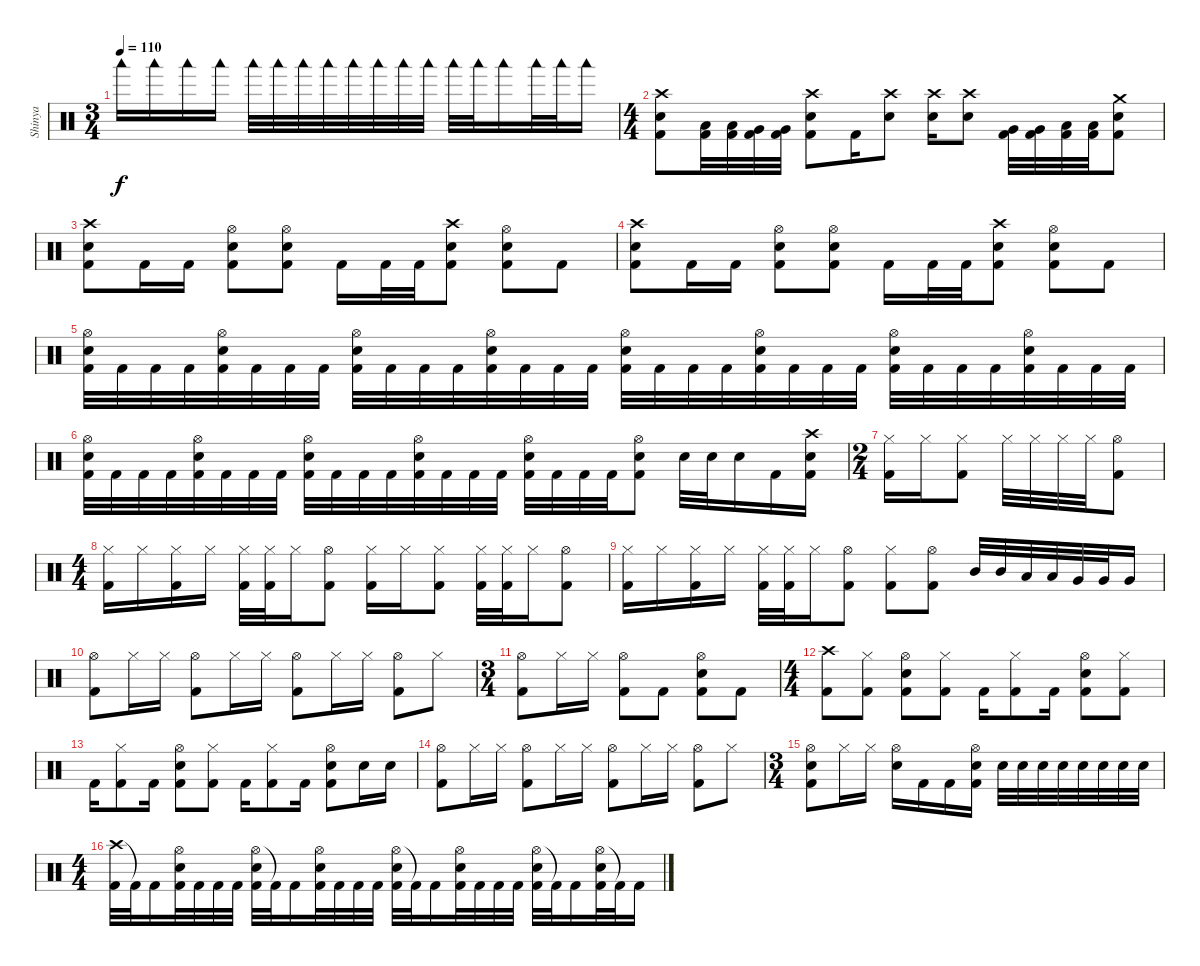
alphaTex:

\track ("Shinya" "Shinya") {instrument percussion}
\staff {score}
\articulation defaults
\ts (3 4)
\tempo 110
\clef neutral
\ks c "Woodblock low (hit)".16{dy f} "Woodblock low (hit)".16 "Woodblock low (hit)".16 "Woodblock low (hit)".16 "Woodblock low (hit)".32 "Woodblock low (hit)".32 "Woodblock low (hit)".32 "Woodblock low (hit)".32 "Woodblock low (hit)".32 "Woodblock low (hit)".32 "Woodblock low (hit)".32 "Woodblock low (hit)".32 "Woodblock low (hit)".32 "Woodblock low (hit)".32 "Woodblock low (hit)".16 "Woodblock low (hit)".32 "Woodblock low (hit)".32 "Woodblock low (hit)".16
|
\ts (4 4)
("Crash high (hit)" "Snare (hit) 2" "Kick (hit) 2").8 ("Low Tom (hit)" "Kick (hit) 2").32 ("Low Tom (hit)" "Kick (hit) 2").32 ("Very Low Tom (hit)" "Kick (hit) 2").32 ("Very Low Tom (hit)" "Kick (hit) 2").32 ("Crash high (hit)" "Electric Snare (hit)" "Kick (hit) 2").8 "Kick (hit) 2".16 ("Crash high (hit)" "Electric Snare (hit)").8 ("Crash high (hit)" "Electric Snare (hit)").16 ("Crash high (hit)" "Electric Snare (hit)").8 ("Very Low Tom (hit)" "Kick (hit) 2").32 ("Very Low Tom (hit)" "Kick (hit) 2").32 ("Low Floor Tom (hit)" "Kick (hit) 2").32 ("Low Floor Tom (hit)" "Kick (hit) 2").32 ("Crash medium (hit)" "Electric Snare (hit)" "Kick (hit) 2").8 |
("Crash high (hit)" "Electric Snare (hit)" "Kick (hit) 2").8 "Kick (hit) 2".16 "Kick (hit) 2".16 ("Hi-Hat (open)" "Electric Snare (hit)" "Kick (hit) 2").8 ("Hi-Hat (open)" "Electric Snare (hit)" "Kick (hit) 2").8 "Kick (hit) 2".16 "Kick (hit) 2".32 "Kick (hit) 2".32 ("Crash high (hit)" "Electric Snare (hit)" "Kick (hit) 2").8 ("Hi-Hat (open)" "Electric Snare (hit)" "Kick (hit) 2").8 "Kick (hit) 2".8 |
("Crash high (hit)" "Electric Snare (hit)" "Kick (hit) 2").8 "Kick (hit) 2".16 "Kick (hit) 2".16 ("Hi-Hat (open)" "Electric Snare (hit)" "Kick (hit) 2").8 ("Hi-Hat (open)" "Electric Snare (hit)" "Kick (hit) 2").8 "Kick (hit) 2".16 "Kick (hit) 2".32 "Kick (hit) 2".32 ("Crash high (hit)" "Electric Snare (hit)" "Kick (hit) 2").8 ("Hi-Hat (open)" "Electric Snare (hit)" "Kick (hit) 2").8 "Kick (hit) 2".8 |
("Hi-Hat (open)" "Electric Snare (hit)" "Kick (hit) 2").32 "Kick (hit) 2".32 "Kick (hit) 2".32 "Kick (hit) 2".32 ("Hi-Hat (open)" "Electric Snare (hit)" "Kick (hit) 2").32 "Kick (hit) 2".32 "Kick (hit) 2".32 "Kick (hit) 2".32 ("Hi-Hat (open)" "Electric Snare (hit)" "Kick (hit) 2").32 "Kick (hit) 2".32 "Kick (hit) 2".32 "Kick (hit) 2".32 ("Hi-Hat (open)" "Electric Snare (hit)" "Kick (hit) 2").32 "Kick (hit) 2".32 "Kick (hit) 2".32 "Kick (hit) 2".32 ("Hi-Hat (open)" "Electric Snare (hit)" "Kick (hit) 2").32 "Kick (hit) 2".32 "Kick (hit) 2".32 "Kick (hit) 2".32 ("Hi-Hat (open)" "Electric Snare (hit)" "Kick (hit) 2").32 "Kick (hit) 2".32 "Kick (hit) 2".32 "Kick (hit) 2".32 ("Hi-Hat (open)" "Electric Snare (hit)" "Kick (hit) 2").32 "Kick (hit) 2".32 "Kick (hit) 2".32 "Kick (hit) 2".32 ("Hi-Hat (open)" "Electric Snare (hit)" "Kick (hit) 2").32 "Kick (hit) 2".32 "Kick (hit) 2".32 "Kick (hit) 2".32 |
("Hi-Hat (open)" "Electric Snare (hit)" "Kick (hit) 2").32 "Kick (hit) 2".32 "Kick (hit) 2".32 "Kick (hit) 2".32 ("Hi-Hat (open)" "Electric Snare (hit)" "Kick (hit) 2").32 "Kick (hit) 2".32 "Kick (hit) 2".32 "Kick (hit) 2".32 ("Hi-Hat (open)" "Electric Snare (hit)" "Kick (hit) 2").32 "Kick (hit) 2".32 "Kick (hit) 2".32 "Kick (hit) 2".32 ("Hi-Hat (open)" "Electric Snare (hit)" "Kick (hit) 2").32 "Kick (hit) 2".32 "Kick (hit) 2".32 "Kick (hit) 2".32 ("Hi-Hat (open)" "Electric Snare (hit)" "Kick (hit) 2").32 "Kick (hit) 2".32 "Kick (hit) 2".32 "Kick (hit) 2".32 ("Hi-Hat (open)" "Electric Snare (hit)" "Kick (hit) 2").8 "Electric Snare (hit)".32 "Electric Snare (hit)".32 "Electric Snare (hit)".16 "Kick (hit) 2".16 ("Crash high (hit)" "Electric Snare (hit)" "Kick (hit) 2").16 |
\ts (2 4)
("Hi-Hat (closed)" "Kick (hit) 2").16 "Hi-Hat (closed)".16 ("Hi-Hat (closed)" "Kick (hit) 2").8 "Hi-Hat (closed)".32 "Hi-Hat (closed)".32 "Hi-Hat (closed)".32 "Hi-Hat (closed)".32 ("Hi-Hat (open)" "Kick (hit) 2").8 |
\ts (4 4)
("Hi-Hat (closed)" "Kick (hit) 2").16 "Hi-Hat (closed)".16 ("Hi-Hat (closed)" "Kick (hit) 2").16 "Hi-Hat (closed)".16 ("Hi-Hat (closed)" "Kick (hit) 2").32 ("Hi-Hat (closed)" "Kick (hit) 2").32 "Hi-Hat (closed)".16 ("Hi-Hat (open)" "Kick (hit) 2").8 ("Hi-Hat (closed)" "Kick (hit) 2").16 "Hi-Hat (closed)".16 ("Hi-Hat (closed)" "Kick (hit) 2").8 ("Hi-Hat (closed)" "Kick (hit) 2").32 ("Hi-Hat (closed)" "Kick (hit) 2").32 "Hi-Hat (closed)".16 ("Hi-Hat (open)" "Kick (hit) 2").8 |
("Hi-Hat (closed)" "Kick (hit) 2").16 "Hi-Hat (closed)".16 ("Hi-Hat (closed)" "Kick (hit) 2").16 "Hi-Hat (closed)".16 ("Hi-Hat (closed)" "Kick (hit) 2").32 ("Hi-Hat (closed)" "Kick (hit) 2").32 "Hi-Hat (closed)".16 ("Hi-Hat (open)" "Kick (hit) 2").8 ("Hi-Hat (closed)" "Kick (hit) 2").8 ("Hi-Hat (open)" "Kick (hit) 2").8 "Mid Tom (hit)".32 "Mid Tom (hit)".32 "Low Tom (hit)".32 "Low Tom (hit)".32 "Very Low Tom (hit)".32 "Very Low Tom (hit)".32 "Very Low Tom (hit)".16 |
("Hi-Hat (open)" "Kick (hit) 2").8 "Hi-Hat (closed)".16 "Hi-Hat (closed)".16 ("Hi-Hat (open)" "Kick (hit) 2").8 "Hi-Hat (closed)".16 "Hi-Hat (closed)".16 ("Hi-Hat (open)" "Kick (hit) 2").8 "Hi-Hat (closed)".16 "Hi-Hat (closed)".16 ("Hi-Hat (open)" "Kick (hit) 2").8 "Hi-Hat (closed)".8 |
\ts (3 4)
("Hi-Hat (open)" "Kick (hit) 2").8 "Hi-Hat (closed)".16 "Hi-Hat (closed)".16 ("Hi-Hat (open)" "Kick (hit) 2").8 "Kick (hit) 2".8 ("Hi-Hat (open)" "Electric Snare (hit)" "Kick (hit) 2").8 "Kick (hit) 2".8 |
\ts (4 4)
("Crash high (hit)" "Kick (hit) 2").8 ("Hi-Hat (closed)" "Kick (hit) 2").8 ("Hi-Hat (open)" "Electric Snare (hit)" "Kick (hit) 2").8 ("Hi-Hat (closed)" "Kick (hit) 2").8 "Kick (hit) 2".16 ("Hi-Hat (closed)" "Kick (hit) 2").8 "Kick (hit) 2".16 ("Hi-Hat (open)" "Electric Snare (hit)" "Kick (hit) 2").8 ("Hi-Hat (closed)" "Kick (hit) 2").8 |
"Kick (hit) 2".16 ("Hi-Hat (closed)" "Kick (hit) 2").8 "Kick (hit) 2".16 ("Hi-Hat (open)" "Electric Snare (hit)" "Kick (hit) 2").8 ("Hi-Hat (closed)" "Kick (hit) 2").8 "Kick (hit) 2".16 ("Hi-Hat (closed)" "Kick (hit) 2").8 "Kick (hit) 2".16 ("Hi-Hat (open)" "Electric Snare (hit)" "Kick (hit) 2").8 "Electric Snare (hit)".16 "Electric Snare (hit)".16 |
("Hi-Hat (open)" "Kick (hit) 2").8 "Hi-Hat (closed)".16 "Hi-Hat (closed)".16 ("Hi-Hat (open)" "Kick (hit) 2").8 "Hi-Hat (closed)".16 "Hi-Hat (closed)".16 ("Hi-Hat (open)" "Kick (hit) 2").8 "Hi-Hat (closed)".16 "Hi-Hat (closed)".16 ("Hi-Hat (open)" "Kick (hit) 2").8 "Hi-Hat (closed)".8 |
\ts (3 4)
("Hi-Hat (open)" "Electric Snare (hit)" "Kick (hit) 2").8 "Hi-Hat (closed)".16 "Hi-Hat (closed)".16 ("Hi-Hat (open)" "Electric Snare (hit)").16 "Kick (hit) 2".16 "Kick (hit) 2".16 ("Hi-Hat (open)" "Electric Snare (hit)" "Kick (hit) 2").16 "Electric Snare (hit)".32 "Electric Snare (hit)".32 "Electric Snare (hit)".32 "Electric Snare (hit)".32 "Electric Snare (hit)".32 "Electric Snare (hit)".32 "Electric Snare (hit)".32 "Electric Snare (hit)".32 |
\ts (4 4)
("Crash high (hit)" "Kick (hit) 2").32 "Kick (hit) 2"{t}.32 "Kick (hit) 2".16 ("Hi-Hat (open)" "Electric Snare (hit)" "Kick (hit) 2").32 "Kick (hit) 2".32 "Kick (hit) 2".32 "Kick (hit) 2".32 ("Hi-Hat (open)" "Electric Snare (hit)" "Kick (hit) 2").32 "Kick (hit) 2"{t}.32 "Kick (hit) 2".16 ("Hi-Hat (open)" "Electric Snare (hit)" "Kick (hit) 2").32 "Kick (hit) 2".32 "Kick (hit) 2".32 "Kick (hit) 2".32 ("Hi-Hat (open)" "Electric Snare (hit)" "Kick (hit) 2").32 "Kick (hit) 2"{t}.32 "Kick (hit) 2".16 ("Hi-Hat (open)" "Electric Snare (hit)" "Kick (hit) 2").32 "Kick (hit) 2".32 "Kick (hit) 2".32 "Kick (hit) 2".32 ("Hi-Hat (open)" "Electric Snare (hit)" "Kick (hit) 2").32 "Kick (hit) 2"{t}.32 "Kick (hit) 2".16 ("Hi-Hat (open)" "Electric Snare (hit)" "Kick (hit) 2").32 "Kick (hit) 2"{t}.32 "Kick (hit) 2".16
